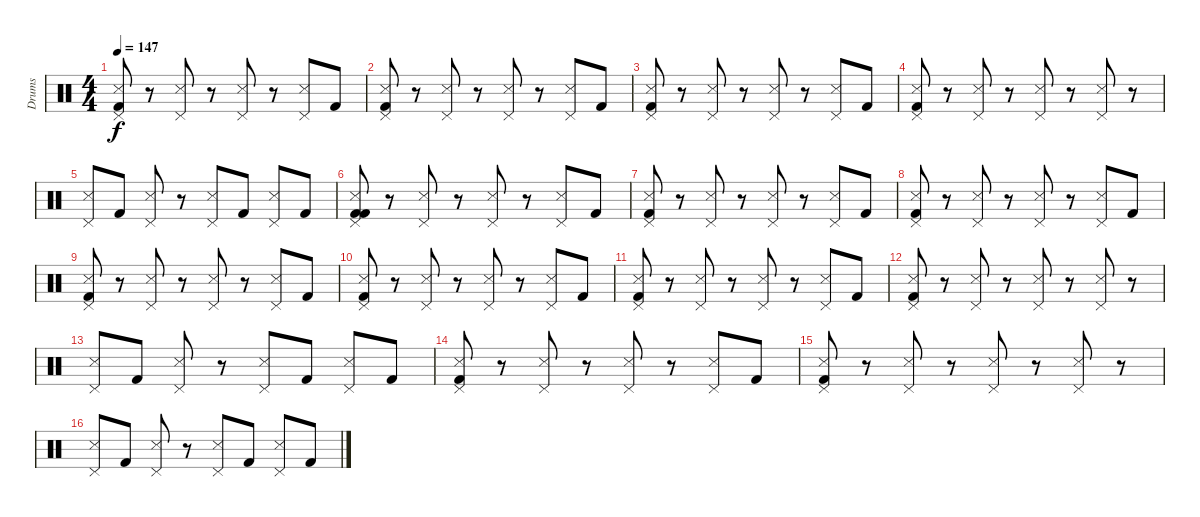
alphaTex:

\track ("Drums" "Drums") {instrument percussion}
\staff {score}
\articulation defaults
\ts (4 4)
\tempo 147
\clef neutral
\ks c
("Pedal Hi-Hat (hit)" "Kick (hit) 2" "Snare (side stick) 3").8{dy f} r.8 ("Pedal Hi-Hat (hit)" "Snare (side stick) 3").8 r.8 ("Pedal Hi-Hat (hit)" "Snare (side stick) 3").8 r.8 ("Pedal Hi-Hat (hit)" "Snare (side stick) 3").8 "Kick (hit) 2".8 |
("Pedal Hi-Hat (hit)" "Kick (hit) 2" "Snare (side stick) 3").8 r.8 ("Pedal Hi-Hat (hit)" "Snare (side stick) 3").8 r.8 ("Pedal Hi-Hat (hit)" "Snare (side stick) 3").8 r.8 ("Pedal Hi-Hat (hit)" "Snare (side stick) 3").8 "Kick (hit) 2".8 |
("Pedal Hi-Hat (hit)" "Kick (hit) 2" "Snare (side stick) 3").8 r.8 ("Pedal Hi-Hat (hit)" "Snare (side stick) 3").8 r.8 ("Pedal Hi-Hat (hit)" "Snare (side stick) 3").8 r.8 ("Pedal Hi-Hat (hit)" "Snare (side stick) 3").8 "Kick (hit) 2".8 |
("Pedal Hi-Hat (hit)" "Kick (hit) 2" "Snare (side stick) 3").8 r.8 ("Pedal Hi-Hat (hit)" "Snare (side stick) 3").8 r.8 ("Pedal Hi-Hat (hit)" "Snare (side stick) 3").8 r.8 ("Pedal Hi-Hat (hit)" "Snare (side stick) 3").8 r.8 |
("Pedal Hi-Hat (hit)" "Snare (side stick) 3").8 "Kick (hit) 2".8 ("Pedal Hi-Hat (hit)" "Snare (side stick) 3").8 r.8 ("Pedal Hi-Hat (hit)" "Snare (side stick) 3").8 "Kick (hit) 2".8 ("Pedal Hi-Hat (hit)" "Snare (side stick) 3").8 "Kick (hit) 2".8 |
("Pedal Hi-Hat (hit)" "Kick (hit) 2" "Kick (hit) 2" "Snare (side stick) 3").8 r.8 ("Pedal Hi-Hat (hit)" "Snare (side stick) 3").8 r.8 ("Pedal Hi-Hat (hit)" "Snare (side stick) 3").8 r.8 ("Pedal Hi-Hat (hit)" "Snare (side stick) 3").8 "Kick (hit) 2".8 |
("Pedal Hi-Hat (hit)" "Kick (hit) 2" "Snare (side stick) 3").8 r.8 ("Pedal Hi-Hat (hit)" "Snare (side stick) 3").8 r.8 ("Pedal Hi-Hat (hit)" "Snare (side stick) 3").8 r.8 ("Pedal Hi-Hat (hit)" "Snare (side stick) 3").8 "Kick (hit) 2".8 |
("Pedal Hi-Hat (hit)" "Kick (hit) 2" "Snare (side stick) 3").8 r.8 ("Pedal Hi-Hat (hit)" "Snare (side stick) 3").8 r.8 ("Pedal Hi-Hat (hit)" "Snare (side stick) 3").8 r.8 ("Pedal Hi-Hat (hit)" "Snare (side stick) 3").8 "Kick (hit) 2".8 |
("Pedal Hi-Hat (hit)" "Kick (hit) 2" "Snare (side stick) 3").8 r.8 ("Pedal Hi-Hat (hit)" "Snare (side stick) 3").8 r.8 ("Pedal Hi-Hat (hit)" "Snare (side stick) 3").8 r.8 ("Pedal Hi-Hat (hit)" "Snare (side stick) 3").8 "Kick (hit) 2".8 |
("Pedal Hi-Hat (hit)" "Kick (hit) 2" "Snare (side stick) 3").8 r.8 ("Pedal Hi-Hat (hit)" "Snare (side stick) 3").8 r.8 ("Pedal Hi-Hat (hit)" "Snare (side stick) 3").8 r.8 ("Pedal Hi-Hat (hit)" "Snare (side stick) 3").8 "Kick (hit) 2".8 |
("Pedal Hi-Hat (hit)" "Kick (hit) 2" "Snare (side stick) 3").8 r.8 ("Pedal Hi-Hat (hit)" "Snare (side stick) 3").8 r.8 ("Pedal Hi-Hat (hit)" "Snare (side stick) 3").8 r.8 ("Pedal Hi-Hat (hit)" "Snare (side stick) 3").8 "Kick (hit) 2".8 |
("Pedal Hi-Hat (hit)" "Kick (hit) 2" "Snare (side stick) 3").8 r.8 ("Pedal Hi-Hat (hit)" "Snare (side stick) 3").8 r.8 ("Pedal Hi-Hat (hit)" "Snare (side stick) 3").8 r.8 ("Pedal Hi-Hat (hit)" "Snare (side stick) 3").8 r.8 |
("Pedal Hi-Hat (hit)" "Snare (side stick) 3").8 "Kick (hit) 2".8 ("Pedal Hi-Hat (hit)" "Snare (side stick) 3").8 r.8 ("Pedal Hi-Hat (hit)" "Snare (side stick) 3").8 "Kick (hit) 2".8 ("Pedal Hi-Hat (hit)" "Snare (side stick) 3").8 "Kick (hit) 2".8 |
("Pedal Hi-Hat (hit)" "Kick (hit) 2" "Snare (side stick) 3").8 r.8 ("Pedal Hi-Hat (hit)" "Snare (side stick) 3").8 r.8 ("Pedal Hi-Hat (hit)" "Snare (side stick) 3").8 r.8 ("Pedal Hi-Hat (hit)" "Snare (side stick) 3").8 "Kick (hit) 2".8 |
("Pedal Hi-Hat (hit)" "Kick (hit) 2" "Snare (side stick) 3").8 r.8 ("Pedal Hi-Hat (hit)" "Snare (side stick) 3").8 r.8 ("Pedal Hi-Hat (hit)" "Snare (side stick) 3").8 r.8 ("Pedal Hi-Hat (hit)" "Snare (side stick) 3").8 r.8 |
("Pedal Hi-Hat (hit)" "Snare (side stick) 3").8 "Kick (hit) 2".8 ("Pedal Hi-Hat (hit)" "Snare (side stick) 3").8 r.8 ("Pedal Hi-Hat (hit)" "Snare (side stick) 3").8 "Kick (hit) 2".8 ("Pedal Hi-Hat (hit)" "Snare (side stick) 3").8 "Kick (hit) 2".8
